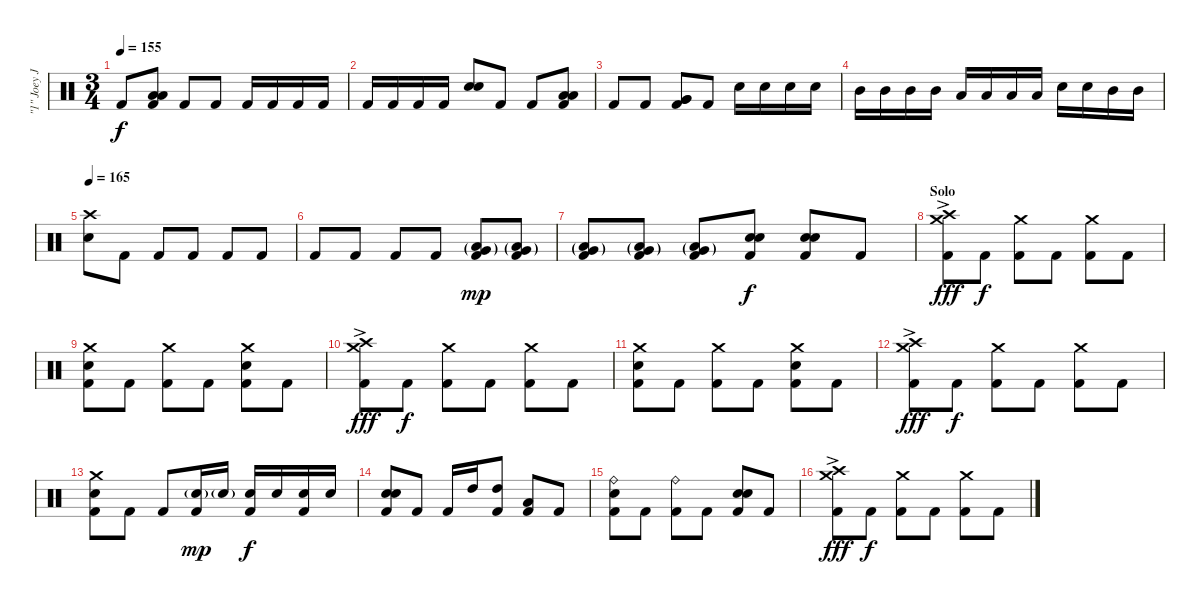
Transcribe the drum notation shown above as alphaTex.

\track ("\"1\" Joey Jordison (Drums)" "\"1\" Joey J") {instrument percussion}
\staff {score}
\articulation defaults
\ts (3 4)
\tempo 155
\clef neutral
\ks c "Kick (hit) 2".8{dy f}
("Low Floor Tom (hit)" "Low Floor Tom (hit)" "Kick (hit) 2").8{bd 60} "Kick (hit) 2".8 "Kick (hit) 2".8 "Kick (hit) 2".16 "Kick (hit) 2".16 "Kick (hit) 2".16 "Kick (hit) 2".16 |
"Kick (hit) 2".16 "Kick (hit) 2".16 "Kick (hit) 2".16 "Kick (hit) 2".16 ("Electric Snare (hit)" "Electric Snare (hit)").8{bd 120} "Kick (hit) 2".8 "Kick (hit) 2".8 ("Low Tom (hit)" "Low Tom (hit)" "Kick (hit) 2").8{bd 120} |
"Kick (hit) 2".8 "Kick (hit) 2".8 ("Very Low Tom (hit)" "Very Low Tom (hit)" "Kick (hit) 2").8{bd 120} "Kick (hit) 2".8 "Electric Snare (hit)".16 "Electric Snare (hit)".16 "Electric Snare (hit)".16 "Electric Snare (hit)".16 |
"Mid Tom (hit)".16 "Mid Tom (hit)".16 "Mid Tom (hit)".16 "Mid Tom (hit)".16 "Low Tom (hit)".16 "Low Tom (hit)".16 "Low Tom (hit)".16 "Low Tom (hit)".16 "Electric Snare (hit)".16 "Electric Snare (hit)".16 "Mid Tom (hit)".16 "Mid Tom (hit)".16 |
\tempo 165
("Crash high (hit)" "Electric Snare (hit)").8 "Kick (hit) 2".8 "Kick (hit) 2".8 "Kick (hit) 2".8 "Kick (hit) 2".8 "Kick (hit) 2".8 |
"Kick (hit) 2".8 "Kick (hit) 2".8 "Kick (hit) 2".8 "Kick (hit) 2".8 ("Very Low Tom (hit)"{g} "Low Floor Tom (hit)"{g} "Kick (hit) 2").8{dy mp} ("Very Low Tom (hit)"{g} "Low Floor Tom (hit)"{g} "Kick (hit) 2").8 |
("Very Low Tom (hit)"{g} "Low Floor Tom (hit)"{g} "Kick (hit) 2").8 ("Very Low Tom (hit)"{g} "Low Floor Tom (hit)"{g} "Kick (hit) 2").8 ("Very Low Tom (hit)"{g} "Low Floor Tom (hit)"{g} "Kick (hit) 2").8 ("Electric Snare (hit)" "Electric Snare (hit)" "Kick (hit) 2").8{bd 60 dy f} ("Electric Snare (hit)" "Electric Snare (hit)" "Kick (hit) 2").8{bd 60} "Kick (hit) 2".8 |
\section ("" "Solo")
("Crash high (hit)"{ac} "Crash medium (hit)" "Kick (hit) 2").8{dy fff} "Kick (hit) 2".8{dy f} ("Crash medium (hit)" "Kick (hit) 2").8 "Kick (hit) 2".8 ("Crash medium (hit)" "Kick (hit) 2").8 "Kick (hit) 2".8 |
("Crash medium (hit)" "Electric Snare (hit)" "Kick (hit) 2").8 "Kick (hit) 2".8 ("Crash medium (hit)" "Kick (hit) 2").8 "Kick (hit) 2".8 ("Crash medium (hit)" "Electric Snare (hit)" "Kick (hit) 2").8 "Kick (hit) 2".8 |
("Crash high (hit)"{ac} "Crash medium (hit)" "Kick (hit) 2").8{dy fff} "Kick (hit) 2".8{dy f} ("Crash medium (hit)" "Kick (hit) 2").8 "Kick (hit) 2".8 ("Crash medium (hit)" "Kick (hit) 2").8 "Kick (hit) 2".8 |
("Crash medium (hit)" "Electric Snare (hit)" "Kick (hit) 2").8 "Kick (hit) 2".8 ("Crash medium (hit)" "Kick (hit) 2").8 "Kick (hit) 2".8 ("Crash medium (hit)" "Electric Snare (hit)" "Kick (hit) 2").8 "Kick (hit) 2".8 |
("Crash high (hit)"{ac} "Crash medium (hit)" "Kick (hit) 2").8{dy fff} "Kick (hit) 2".8{dy f} ("Crash medium (hit)" "Kick (hit) 2").8 "Kick (hit) 2".8 ("Crash medium (hit)" "Kick (hit) 2").8 "Kick (hit) 2".8 |
("Crash medium (hit)" "Electric Snare (hit)" "Kick (hit) 2").8 "Kick (hit) 2".8 "Kick (hit) 2".8 ("Electric Snare (hit)"{g} "Kick (hit) 2").16{dy mp} "Electric Snare (hit)"{g}.16 ("Electric Snare (hit)" "Kick (hit) 2").16{dy f} "Electric Snare (hit)".16 ("Electric Snare (hit)" "Kick (hit) 2").16 "Electric Snare (hit)".16 |
("Electric Snare (hit)" "Electric Snare (hit)" "Kick (hit) 2").8{bd 60} "Kick (hit) 2".8 "Kick (hit) 2".16 "High Tom (hit)".16 ("High Tom (hit)" "Kick (hit) 2").8 ("Low Tom (hit)" "Kick (hit) 2").8 "Kick (hit) 2".8 |
("Ride (bell)" "Electric Snare (hit)" "Kick (hit) 2").8 "Kick (hit) 2".8 ("Ride (bell)" "Kick (hit) 2").8 "Kick (hit) 2".8 ("Electric Snare (hit)" "Electric Snare (hit)" "Kick (hit) 2").8{bd 60} "Kick (hit) 2".8 |
("Crash high (hit)"{ac} "Crash medium (hit)" "Kick (hit) 2").8{dy fff} "Kick (hit) 2".8{dy f} ("Crash medium (hit)" "Kick (hit) 2").8 "Kick (hit) 2".8 ("Crash medium (hit)" "Kick (hit) 2").8 "Kick (hit) 2".8
